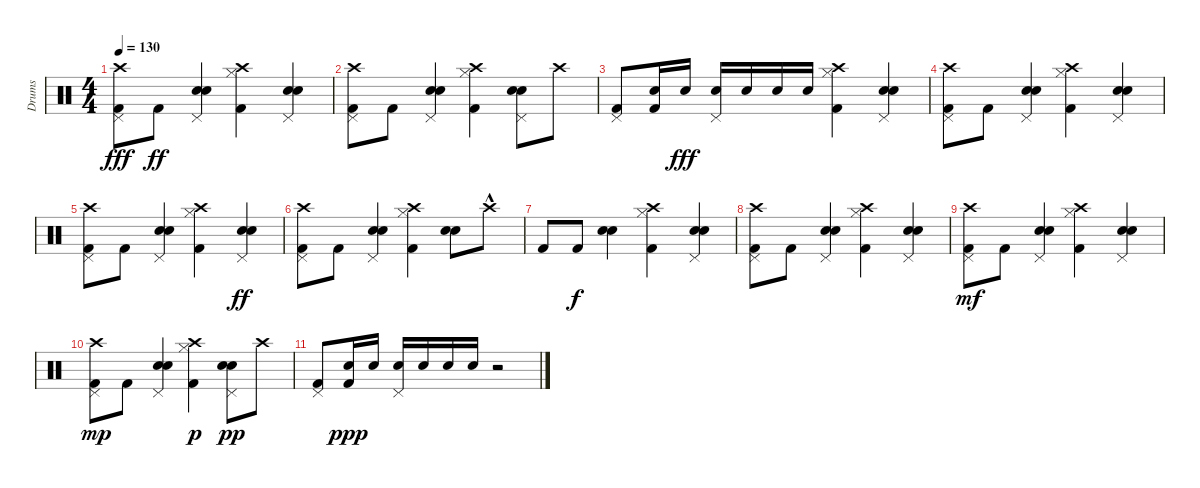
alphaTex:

\track ("Drums" "Drums") {instrument percussion}
\staff {score}
\articulation defaults
\ts (4 4)
\tempo 130
\clef neutral
\ks c
("Pedal Hi-Hat (hit)" "Kick (hit) 2" "Crash high (hit)").8{dy fff} "Kick (hit) 2".8{dy ff} ("Electric Snare (hit)" "Pedal Hi-Hat (hit)" "Snare (hit) 2").4 ("Hi-Hat (closed)" "Kick (hit) 2" "Crash high (hit)").4 ("Electric Snare (hit)" "Pedal Hi-Hat (hit)" "Snare (hit) 2").4 |
("Pedal Hi-Hat (hit)" "Kick (hit) 2" "Crash high (hit)").8 "Kick (hit) 2".8 ("Electric Snare (hit)" "Pedal Hi-Hat (hit)" "Snare (hit) 2").4 ("Hi-Hat (closed)" "Kick (hit) 2" "Crash high (hit)").4 ("Electric Snare (hit)" "Pedal Hi-Hat (hit)" "Snare (hit) 2").8 "Crash high (hit)".8 |
("Pedal Hi-Hat (hit)" "Kick (hit) 2").8 ("Kick (hit) 2" "Snare (hit) 2").16 "Snare (hit) 2".16{dy fff} ("Pedal Hi-Hat (hit)" "Electric Snare (hit)").16 "Electric Snare (hit)".16 "Electric Snare (hit)".16 "Electric Snare (hit)".16 ("Hi-Hat (closed)" "Kick (hit) 2" "Crash high (hit)").4 ("Electric Snare (hit)" "Pedal Hi-Hat (hit)" "Snare (hit) 2").4 |
("Pedal Hi-Hat (hit)" "Kick (hit) 2" "Crash high (hit)").8 "Kick (hit) 2".8 ("Electric Snare (hit)" "Pedal Hi-Hat (hit)" "Snare (hit) 2").4 ("Hi-Hat (closed)" "Kick (hit) 2" "Crash high (hit)").4 ("Electric Snare (hit)" "Pedal Hi-Hat (hit)" "Snare (hit) 2").4 |
("Pedal Hi-Hat (hit)" "Kick (hit) 2" "Crash high (hit)").8 "Kick (hit) 2".8 ("Electric Snare (hit)" "Pedal Hi-Hat (hit)" "Snare (hit) 2").4 ("Hi-Hat (closed)" "Kick (hit) 2" "Crash high (hit)").4 ("Electric Snare (hit)" "Pedal Hi-Hat (hit)" "Snare (hit) 2").4{dy ff} |
("Pedal Hi-Hat (hit)" "Kick (hit) 2" "Crash high (hit)").8 "Kick (hit) 2".8 ("Electric Snare (hit)" "Pedal Hi-Hat (hit)" "Snare (hit) 2").4 ("Hi-Hat (closed)" "Kick (hit) 2" "Crash high (hit)").4 ("Electric Snare (hit)" "Snare (hit) 2").8 "Crash high (hit)"{hac}.8 |
"Kick (hit) 2".8 "Kick (hit) 2".8{dy f} ("Electric Snare (hit)" "Snare (hit) 2").4 ("Hi-Hat (closed)" "Kick (hit) 2" "Crash high (hit)").4 ("Electric Snare (hit)" "Pedal Hi-Hat (hit)" "Snare (hit) 2").4 |
("Pedal Hi-Hat (hit)" "Kick (hit) 2" "Crash high (hit)").8 "Kick (hit) 2".8 ("Electric Snare (hit)" "Pedal Hi-Hat (hit)" "Snare (hit) 2").4 ("Hi-Hat (closed)" "Kick (hit) 2" "Crash high (hit)").4 ("Electric Snare (hit)" "Pedal Hi-Hat (hit)" "Snare (hit) 2").4 |
("Pedal Hi-Hat (hit)" "Kick (hit) 2" "Crash high (hit)").8{dy mf} "Kick (hit) 2".8 ("Electric Snare (hit)" "Pedal Hi-Hat (hit)" "Snare (hit) 2").4 ("Hi-Hat (closed)" "Kick (hit) 2" "Crash high (hit)").4 ("Electric Snare (hit)" "Pedal Hi-Hat (hit)" "Snare (hit) 2").4 |
("Pedal Hi-Hat (hit)" "Kick (hit) 2" "Crash high (hit)").8{dy mp} "Kick (hit) 2".8 ("Electric Snare (hit)" "Pedal Hi-Hat (hit)" "Snare (hit) 2").4 ("Hi-Hat (closed)" "Kick (hit) 2" "Crash high (hit)").4{dy p} ("Electric Snare (hit)" "Pedal Hi-Hat (hit)" "Snare (hit) 2").8{dy pp} "Crash high (hit)".8 |
("Pedal Hi-Hat (hit)" "Kick (hit) 2").8 ("Kick (hit) 2" "Snare (hit) 2").16{dy ppp} "Snare (hit) 2".16 ("Pedal Hi-Hat (hit)" "Electric Snare (hit)").16 "Electric Snare (hit)".16 "Electric Snare (hit)".16 "Electric Snare (hit)".16 r.2
